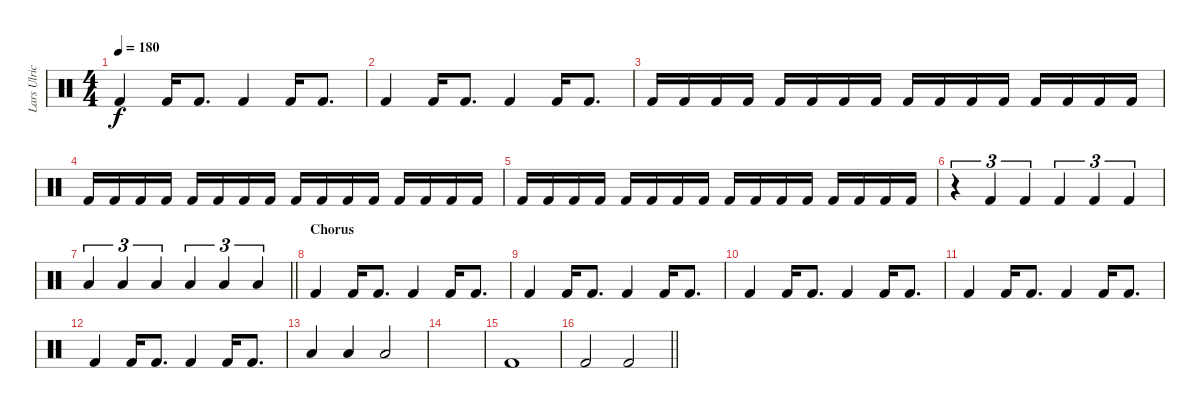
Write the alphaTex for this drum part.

\track ("Lars Ulrich" "Lars Ulric") {instrument percussion}
\staff {score}
\articulation defaults
\ts (4 4)
\tempo 180
\clef neutral
\ks c "Kick (hit) 2".4{dy f} "Kick (hit) 2".16 "Kick (hit) 2".8{d} "Kick (hit) 2".4 "Kick (hit) 2".16 "Kick (hit) 2".8{d}
|
"Kick (hit) 2".4 "Kick (hit) 2".16 "Kick (hit) 2".8{d} "Kick (hit) 2".4 "Kick (hit) 2".16 "Kick (hit) 2".8{d} |
"Kick (hit) 2".16 "Kick (hit) 2".16 "Kick (hit) 2".16 "Kick (hit) 2".16 "Kick (hit) 2".16 "Kick (hit) 2".16 "Kick (hit) 2".16 "Kick (hit) 2".16 "Kick (hit) 2".16 "Kick (hit) 2".16 "Kick (hit) 2".16 "Kick (hit) 2".16 "Kick (hit) 2".16 "Kick (hit) 2".16 "Kick (hit) 2".16 "Kick (hit) 2".16 |
"Kick (hit) 2".16 "Kick (hit) 2".16 "Kick (hit) 2".16 "Kick (hit) 2".16 "Kick (hit) 2".16 "Kick (hit) 2".16 "Kick (hit) 2".16 "Kick (hit) 2".16 "Kick (hit) 2".16 "Kick (hit) 2".16 "Kick (hit) 2".16 "Kick (hit) 2".16 "Kick (hit) 2".16 "Kick (hit) 2".16 "Kick (hit) 2".16 "Kick (hit) 2".16 |
"Kick (hit) 2".16 "Kick (hit) 2".16 "Kick (hit) 2".16 "Kick (hit) 2".16 "Kick (hit) 2".16 "Kick (hit) 2".16 "Kick (hit) 2".16 "Kick (hit) 2".16 "Kick (hit) 2".16 "Kick (hit) 2".16 "Kick (hit) 2".16 "Kick (hit) 2".16 "Kick (hit) 2".16 "Kick (hit) 2".16 "Kick (hit) 2".16 "Kick (hit) 2".16 |
r.4{tu (3 2)} "Kick (hit) 2".4{tu (3 2)} "Kick (hit) 2".4{tu (3 2)} "Kick (hit) 2".4{tu (3 2)} "Kick (hit) 2".4{tu (3 2)} "Kick (hit) 2".4{tu (3 2)} |
\barLineRight lightlight "Low Floor Tom (hit)".4{tu (3 2)} "Low Floor Tom (hit)".4{tu (3 2)} "Low Floor Tom (hit)".4{tu (3 2)} "Low Floor Tom (hit)".4{tu (3 2)} "Low Floor Tom (hit)".4{tu (3 2)} "Low Floor Tom (hit)".4{tu (3 2)}
|
\section ("" "Chorus")
"Kick (hit) 2".4 "Kick (hit) 2".16 "Kick (hit) 2".8{d} "Kick (hit) 2".4 "Kick (hit) 2".16 "Kick (hit) 2".8{d} |
"Kick (hit) 2".4 "Kick (hit) 2".16 "Kick (hit) 2".8{d} "Kick (hit) 2".4 "Kick (hit) 2".16 "Kick (hit) 2".8{d} |
"Kick (hit) 2".4 "Kick (hit) 2".16 "Kick (hit) 2".8{d} "Kick (hit) 2".4 "Kick (hit) 2".16 "Kick (hit) 2".8{d} |
"Kick (hit) 2".4 "Kick (hit) 2".16 "Kick (hit) 2".8{d} "Kick (hit) 2".4 "Kick (hit) 2".16 "Kick (hit) 2".8{d} |
"Kick (hit) 2".4 "Kick (hit) 2".16 "Kick (hit) 2".8{d} "Kick (hit) 2".4 "Kick (hit) 2".16 "Kick (hit) 2".8{d} |
"Low Floor Tom (hit)".4 "Low Floor Tom (hit)".4 "Low Floor Tom (hit)".2 |
|
"Kick (hit) 2".1 |
\barLineRight lightlight "Kick (hit) 2".2 "Kick (hit) 2".2
